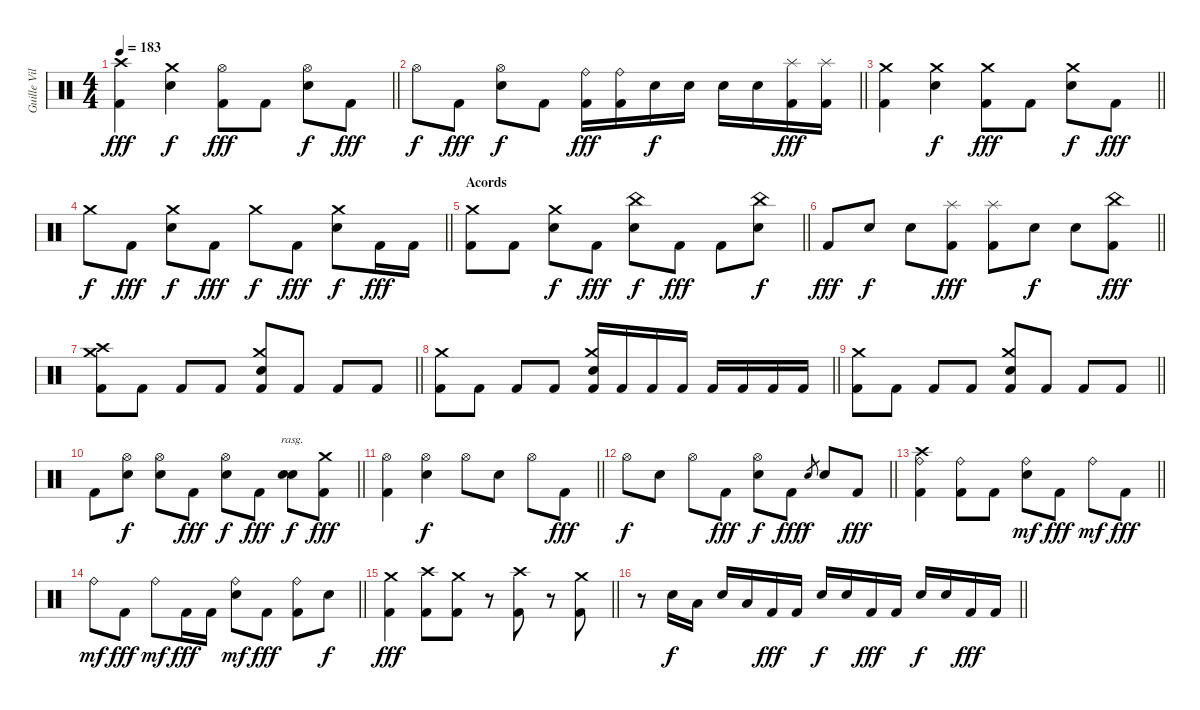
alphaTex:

\track ("Guille Vila" "Guille Vil") {instrument percussion}
\staff {score}
\articulation defaults
\ts (4 4)
\tempo 183
\clef neutral
\barLineRight lightlight
\ks c
("Crash high (hit)" "Kick (hit) 2").4{dy fff} ("Crash medium (hit)" "Snare (hit) 2").4{dy f} ("Hi-Hat (open)" "Kick (hit) 2").8{dy fff} "Kick (hit) 2".8 ("Hi-Hat (open)" "Snare (hit) 2").8{dy f} "Kick (hit) 2".8{dy fff} |
\barLineRight lightlight "Hi-Hat (open)".8{dy f} "Kick (hit) 2".8{dy fff}
("Hi-Hat (open)" "Snare (hit) 2").8{dy f} "Kick (hit) 2".8 ("Ride (bell)" "Kick (hit) 2").16{dy fff} ("Ride (bell)" "Kick (hit) 2").16 "Snare (hit) 2".16{dy f} "Snare (hit) 2".16 "Snare (hit) 2".16 "Snare (hit) 2".16 ("Splash (hit)" "Kick (hit) 2").16{dy fff} ("Splash (hit)" "Kick (hit) 2").16 |
\barLineRight lightlight
("Crash medium (hit)" "Kick (hit) 2").4 ("Crash medium (hit)" "Snare (hit) 2").4{dy f} ("Crash medium (hit)" "Kick (hit) 2").8{dy fff} "Kick (hit) 2".8 ("Crash medium (hit)" "Snare (hit) 2").8{dy f} "Kick (hit) 2".8{dy fff} |
\barLineRight lightlight "Crash medium (hit)".8{dy f} "Kick (hit) 2".8{dy fff}
("Crash medium (hit)" "Snare (hit) 2").8{dy f} "Kick (hit) 2".8{dy fff} "Crash medium (hit)".8{dy f} "Kick (hit) 2".8{dy fff} ("Crash medium (hit)" "Snare (hit) 2").8{dy f} "Kick (hit) 2".16{dy fff} "Kick (hit) 2".16 |
\section ("" "Acords")
\barLineRight lightlight
("Crash medium (hit)" "Kick (hit) 2").8 "Kick (hit) 2".8 ("Crash medium (hit)" "Snare (hit) 2").8{dy f} "Kick (hit) 2".8{dy fff} ("China (hit)" "Snare (hit) 2").8{dy f} "Kick (hit) 2".8{dy fff} "Kick (hit) 2".8 ("China (hit)" "Snare (hit) 2").8{dy f} |
\barLineRight lightlight "Kick (hit) 2".8{dy fff} "Snare (hit) 2".8{dy f} "Snare (hit) 2".8
("Splash (hit)" "Kick (hit) 2").8{dy fff} ("Splash (hit)" "Kick (hit) 2").8 "Snare (hit) 2".8{dy f} "Snare (hit) 2".8 ("China (hit)" "Kick (hit) 2").8{dy fff} |
\barLineRight lightlight
("Crash medium (hit)" "Crash high (hit)" "Kick (hit) 2").8 "Kick (hit) 2".8 "Kick (hit) 2".8 "Kick (hit) 2".8 ("Crash medium (hit)" "Snare (hit) 2" "Kick (hit) 2").8 "Kick (hit) 2".8 "Kick (hit) 2".8 "Kick (hit) 2".8 |
\barLineRight lightlight
("Crash medium (hit)" "Kick (hit) 2").8 "Kick (hit) 2".8 "Kick (hit) 2".8 "Kick (hit) 2".8 ("Crash medium (hit)" "Snare (hit) 2" "Kick (hit) 2").16 "Kick (hit) 2".16 "Kick (hit) 2".16 "Kick (hit) 2".16 "Kick (hit) 2".16 "Kick (hit) 2".16 "Kick (hit) 2".16 "Kick (hit) 2".16 |
\barLineRight lightlight
("Crash medium (hit)" "Kick (hit) 2").8 "Kick (hit) 2".8 "Kick (hit) 2".8 "Kick (hit) 2".8 ("Crash medium (hit)" "Snare (hit) 2" "Kick (hit) 2").8 "Kick (hit) 2".8 "Kick (hit) 2".8 "Kick (hit) 2".8 |
\barLineRight lightlight "Kick (hit) 2".8
("Hi-Hat (open)" "Snare (hit) 2").8{dy f} ("Hi-Hat (open)" "Snare (hit) 2").8 "Kick (hit) 2".8{dy fff} ("Hi-Hat (open)" "Snare (hit) 2").8{dy f} "Kick (hit) 2".8{dy fff} ("Snare (hit) 2" "Snare (hit) 2").8{bd 240 rasg ii dy f} ("Crash medium (hit)" "Kick (hit) 2").8{dy fff} |
\barLineRight lightlight
("Hi-Hat (open)" "Kick (hit) 2").4 ("Hi-Hat (open)" "Snare (hit) 2").4{dy f} "Hi-Hat (open)".8 "Snare (hit) 2".8 "Hi-Hat (open)".8 "Kick (hit) 2".8{dy fff} |
\barLineRight lightlight "Hi-Hat (open)".8{dy f} "Snare (hit) 2".8 "Hi-Hat (open)".8 "Kick (hit) 2".8{dy fff}
("Hi-Hat (open)" "Snare (hit) 2").8{dy f} "Kick (hit) 2".8{dy fff} "Snare (hit) 2".8{gr dy f} "Snare (hit) 2".8 "Kick (hit) 2".8{dy fff} |
\barLineRight lightlight
("Crash high (hit)" "Ride (bell)" "Kick (hit) 2").4 ("Ride (bell)" "Kick (hit) 2").8 "Kick (hit) 2".8 ("Ride (bell)" "Snare (hit) 2").8{dy mf} "Kick (hit) 2".8{dy fff} "Ride (bell)".8{dy mf} "Kick (hit) 2".8{dy fff} |
\barLineRight lightlight "Ride (bell)".8{dy mf} "Kick (hit) 2".8{dy fff} "Ride (bell)".8{dy mf} "Kick (hit) 2".16{dy fff} "Kick (hit) 2".16
("Ride (bell)" "Snare (hit) 2").8{dy mf} "Kick (hit) 2".8{dy fff} ("Ride (bell)" "Kick (hit) 2").8 "Snare (hit) 2".8{dy f} |
\barLineRight lightlight
("Crash medium (hit)" "Kick (hit) 2").4{dy fff} ("Crash high (hit)" "Kick (hit) 2").8 ("Crash medium (hit)" "Kick (hit) 2").8 r.8 ("Crash high (hit)" "Kick (hit) 2").8 r.8 ("Crash medium (hit)" "Kick (hit) 2").8 |
\barLineRight lightlight
r.8 "Snare (hit) 2".16{dy f} "Low Tom (hit)".16 "Snare (hit) 2".16 "Low Tom (hit)".16 "Kick (hit) 2".16{dy fff} "Kick (hit) 2".16 "Snare (hit) 2".16{dy f} "Snare (hit) 2".16 "Kick (hit) 2".16{dy fff} "Kick (hit) 2".16 "Snare (hit) 2".16{dy f} "Snare (hit) 2".16 "Kick (hit) 2".16{dy fff} "Kick (hit) 2".16
